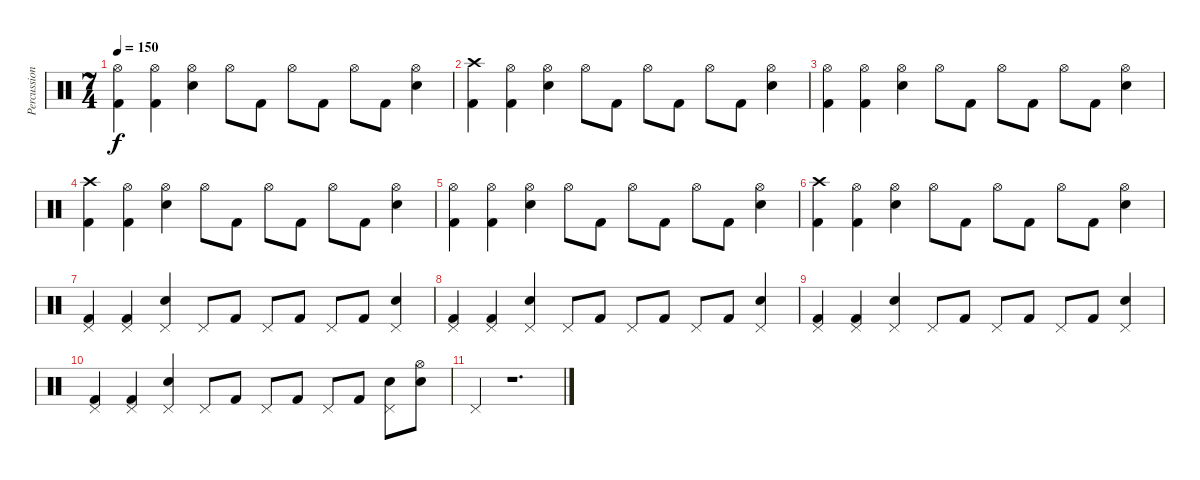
\track ("Percussion" "Percussion") {instrument percussion}
\staff {score}
\articulation defaults
\ts (7 4)
\tempo 150
\clef neutral
\ks c
("Hi-Hat (open)" "Kick (hit) 2").4{dy f} ("Hi-Hat (open)" "Kick (hit) 2").4 ("Hi-Hat (open)" "Electric Snare (hit)").4 "Hi-Hat (open)".8 "Kick (hit) 2".8 "Hi-Hat (open)".8 "Kick (hit) 2".8 "Hi-Hat (open)".8 "Kick (hit) 2".8 ("Hi-Hat (open)" "Electric Snare (hit)").4 |
("Crash high (hit)" "Kick (hit) 2").4{volume 13} ("Hi-Hat (open)" "Kick (hit) 2").4 ("Hi-Hat (open)" "Electric Snare (hit)").4 "Hi-Hat (open)".8 "Kick (hit) 2".8 "Hi-Hat (open)".8 "Kick (hit) 2".8 "Hi-Hat (open)".8 "Kick (hit) 2".8 ("Hi-Hat (open)" "Electric Snare (hit)").4 |
("Hi-Hat (open)" "Kick (hit) 2").4 ("Hi-Hat (open)" "Kick (hit) 2").4 ("Hi-Hat (open)" "Electric Snare (hit)").4 "Hi-Hat (open)".8 "Kick (hit) 2".8 "Hi-Hat (open)".8 "Kick (hit) 2".8 "Hi-Hat (open)".8 "Kick (hit) 2".8 ("Hi-Hat (open)" "Electric Snare (hit)").4 |
("Crash high (hit)" "Kick (hit) 2").4{volume 13} ("Hi-Hat (open)" "Kick (hit) 2").4 ("Hi-Hat (open)" "Electric Snare (hit)").4 "Hi-Hat (open)".8 "Kick (hit) 2".8 "Hi-Hat (open)".8 "Kick (hit) 2".8 "Hi-Hat (open)".8 "Kick (hit) 2".8 ("Hi-Hat (open)" "Electric Snare (hit)").4 |
("Hi-Hat (open)" "Kick (hit) 2").4 ("Hi-Hat (open)" "Kick (hit) 2").4 ("Hi-Hat (open)" "Electric Snare (hit)").4 "Hi-Hat (open)".8 "Kick (hit) 2".8 "Hi-Hat (open)".8 "Kick (hit) 2".8 "Hi-Hat (open)".8 "Kick (hit) 2".8 ("Hi-Hat (open)" "Electric Snare (hit)").4 |
("Crash high (hit)" "Kick (hit) 2").4{volume 13} ("Hi-Hat (open)" "Kick (hit) 2").4 ("Hi-Hat (open)" "Electric Snare (hit)").4 "Hi-Hat (open)".8 "Kick (hit) 2".8 "Hi-Hat (open)".8 "Kick (hit) 2".8 "Hi-Hat (open)".8 "Kick (hit) 2".8 ("Hi-Hat (open)" "Electric Snare (hit)").4 |
("Pedal Hi-Hat (hit)" "Kick (hit) 2").4 ("Pedal Hi-Hat (hit)" "Kick (hit) 2").4 ("Pedal Hi-Hat (hit)" "Electric Snare (hit)").4 "Pedal Hi-Hat (hit)".8 "Kick (hit) 2".8 "Pedal Hi-Hat (hit)".8 "Kick (hit) 2".8 "Pedal Hi-Hat (hit)".8 "Kick (hit) 2".8 ("Pedal Hi-Hat (hit)" "Electric Snare (hit)").4 |
("Pedal Hi-Hat (hit)" "Kick (hit) 2").4 ("Pedal Hi-Hat (hit)" "Kick (hit) 2").4 ("Pedal Hi-Hat (hit)" "Electric Snare (hit)").4 "Pedal Hi-Hat (hit)".8 "Kick (hit) 2".8 "Pedal Hi-Hat (hit)".8 "Kick (hit) 2".8 "Pedal Hi-Hat (hit)".8 "Kick (hit) 2".8 ("Pedal Hi-Hat (hit)" "Electric Snare (hit)").4 |
("Pedal Hi-Hat (hit)" "Kick (hit) 2").4 ("Pedal Hi-Hat (hit)" "Kick (hit) 2").4 ("Pedal Hi-Hat (hit)" "Electric Snare (hit)").4 "Pedal Hi-Hat (hit)".8 "Kick (hit) 2".8 "Pedal Hi-Hat (hit)".8 "Kick (hit) 2".8 "Pedal Hi-Hat (hit)".8 "Kick (hit) 2".8 ("Pedal Hi-Hat (hit)" "Electric Snare (hit)").4 |
("Pedal Hi-Hat (hit)" "Kick (hit) 2").4 ("Pedal Hi-Hat (hit)" "Kick (hit) 2").4 ("Pedal Hi-Hat (hit)" "Electric Snare (hit)").4 "Pedal Hi-Hat (hit)".8 "Kick (hit) 2".8 "Pedal Hi-Hat (hit)".8 "Kick (hit) 2".8 "Pedal Hi-Hat (hit)".8 "Kick (hit) 2".8 ("Pedal Hi-Hat (hit)" "Electric Snare (hit)").8 ("Hi-Hat (open)" "Electric Snare (hit)").8 |
"Pedal Hi-Hat (hit)".4 r.1{d}
